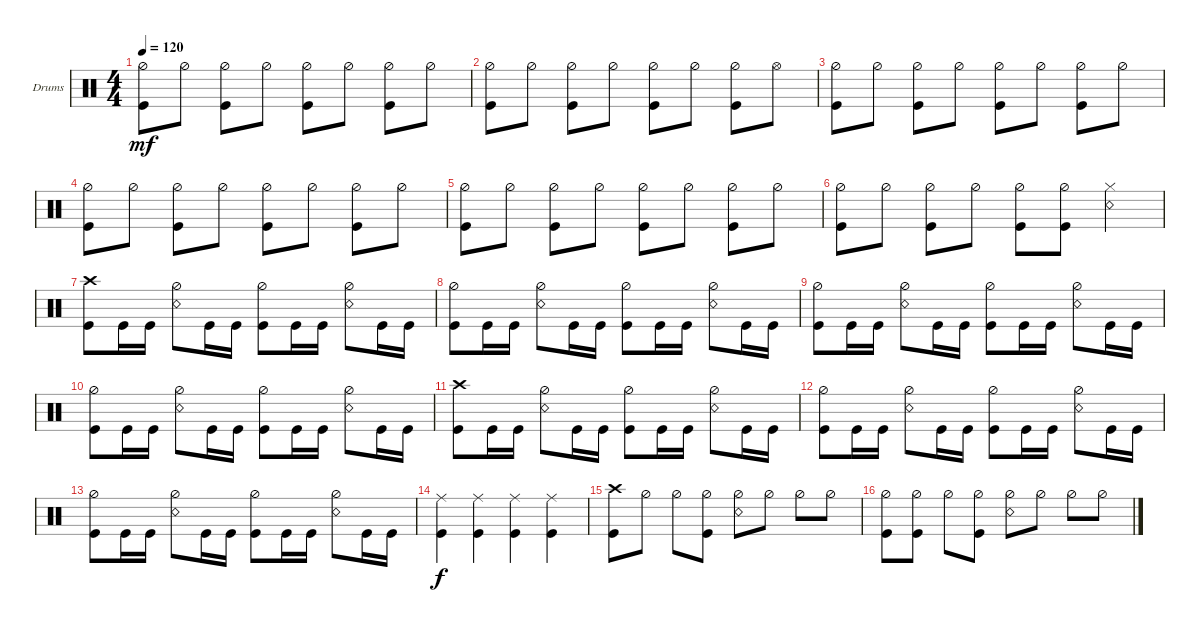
\defaultSystemsLayout 4
\bracketExtendMode groupsimilarinstruments
\firstSystemTrackNameOrientation horizontal
\otherSystemsTrackNameOrientation horizontal
\track ("Drumkit" "Drums") {instrument percussion}
\staff {score}
\articulation defaults
\ts (4 4)
\tempo 120
\clef neutral
\ks c
("Kick (hit)" "Hi-Hat (half)").8{dy mf} "Hi-Hat (half)".8 ("Kick (hit)" "Hi-Hat (half)").8 "Hi-Hat (half)".8 ("Kick (hit)" "Hi-Hat (half)").8 "Hi-Hat (half)".8 ("Kick (hit)" "Hi-Hat (half)").8 "Hi-Hat (half)".8 |
("Kick (hit)" "Hi-Hat (half)").8 "Hi-Hat (half)".8 ("Kick (hit)" "Hi-Hat (half)").8 "Hi-Hat (half)".8 ("Kick (hit)" "Hi-Hat (half)").8 "Hi-Hat (half)".8 ("Kick (hit)" "Hi-Hat (half)").8 "Hi-Hat (open)".8 |
("Kick (hit)" "Hi-Hat (half)").8 "Hi-Hat (half)".8 ("Kick (hit)" "Hi-Hat (half)").8 "Hi-Hat (half)".8 ("Kick (hit)" "Hi-Hat (half)").8 "Hi-Hat (half)".8 ("Kick (hit)" "Hi-Hat (half)").8 "Hi-Hat (half)".8 |
("Kick (hit)" "Hi-Hat (half)").8 "Hi-Hat (half)".8 ("Kick (hit)" "Hi-Hat (half)").8 "Hi-Hat (half)".8 ("Kick (hit)" "Hi-Hat (half)").8 "Hi-Hat (half)".8 ("Kick (hit)" "Hi-Hat (half)").8 "Hi-Hat (half)".8 |
("Kick (hit)" "Hi-Hat (half)").8 "Hi-Hat (half)".8 ("Kick (hit)" "Hi-Hat (half)").8 "Hi-Hat (half)".8 ("Kick (hit)" "Hi-Hat (half)").8 "Hi-Hat (half)".8 ("Kick (hit)" "Hi-Hat (half)").8 "Hi-Hat (half)".8 |
("Kick (hit)" "Hi-Hat (half)").8 "Hi-Hat (half)".8 ("Kick (hit)" "Hi-Hat (half)").8 "Hi-Hat (half)".8 ("Kick (hit)" "Hi-Hat (half)").8 ("Kick (hit)" "Hi-Hat (half)").8 ("Snare (rim shot)" "Hi-Hat (closed)").4 |
("Kick (hit)" "Crash high (hit)").8 "Kick (hit)".16 "Kick (hit)".16 ("Snare (rim shot)" "Hi-Hat (half)").8 "Kick (hit)".16 "Kick (hit)".16 ("Kick (hit)" "Hi-Hat (half)").8 "Kick (hit)".16 "Kick (hit)".16 ("Snare (rim shot)" "Hi-Hat (half)").8 "Kick (hit)".16 "Kick (hit)".16 |
("Kick (hit)" "Hi-Hat (half)").8 "Kick (hit)".16 "Kick (hit)".16 ("Snare (rim shot)" "Hi-Hat (half)").8 "Kick (hit)".16 "Kick (hit)".16 ("Kick (hit)" "Hi-Hat (half)").8 "Kick (hit)".16 "Kick (hit)".16 ("Snare (rim shot)" "Hi-Hat (half)").8 "Kick (hit)".16 "Kick (hit)".16 |
("Kick (hit)" "Hi-Hat (half)").8 "Kick (hit)".16 "Kick (hit)".16 ("Snare (rim shot)" "Hi-Hat (half)").8 "Kick (hit)".16 "Kick (hit)".16 ("Kick (hit)" "Hi-Hat (half)").8 "Kick (hit)".16 "Kick (hit)".16 ("Snare (rim shot)" "Hi-Hat (half)").8 "Kick (hit)".16 "Kick (hit)".16 |
("Kick (hit)" "Hi-Hat (half)").8 "Kick (hit)".16 "Kick (hit)".16 ("Snare (rim shot)" "Hi-Hat (half)").8 "Kick (hit)".16 "Kick (hit)".16 ("Kick (hit)" "Hi-Hat (half)").8 "Kick (hit)".16 "Kick (hit)".16 ("Snare (rim shot)" "Hi-Hat (half)").8 "Kick (hit)".16 "Kick (hit)".16 |
("Kick (hit)" "Crash high (hit)").8 "Kick (hit)".16 "Kick (hit)".16 ("Snare (rim shot)" "Hi-Hat (half)").8 "Kick (hit)".16 "Kick (hit)".16 ("Kick (hit)" "Hi-Hat (half)").8 "Kick (hit)".16 "Kick (hit)".16 ("Snare (rim shot)" "Hi-Hat (half)").8 "Kick (hit)".16 "Kick (hit)".16 |
("Kick (hit)" "Hi-Hat (half)").8 "Kick (hit)".16 "Kick (hit)".16 ("Snare (rim shot)" "Hi-Hat (half)").8 "Kick (hit)".16 "Kick (hit)".16 ("Kick (hit)" "Hi-Hat (half)").8 "Kick (hit)".16 "Kick (hit)".16 ("Snare (rim shot)" "Hi-Hat (half)").8 "Kick (hit)".16 "Kick (hit)".16 |
("Kick (hit)" "Hi-Hat (half)").8 "Kick (hit)".16 "Kick (hit)".16 ("Snare (rim shot)" "Hi-Hat (half)").8 "Kick (hit)".16 "Kick (hit)".16 ("Kick (hit)" "Hi-Hat (half)").8 "Kick (hit)".16 "Kick (hit)".16 ("Snare (rim shot)" "Hi-Hat (half)").8 "Kick (hit)".16 "Kick (hit)".16 |
("Kick (hit)" "Ride (middle)").4{dy f} ("Kick (hit)" "Ride (middle)").4 ("Kick (hit)" "Ride (middle)").4 ("Kick (hit)" "Ride (middle)").4 |
("Kick (hit)" "Crash high (hit)").8 "Hi-Hat (half)".8 "Hi-Hat (half)".8 ("Kick (hit)" "Hi-Hat (half)").8 ("Snare (rim shot)" "Hi-Hat (half)").8 "Hi-Hat (half)".8 "Hi-Hat (half)".8 "Hi-Hat (half)".8 |
("Kick (hit)" "Hi-Hat (half)").8 ("Hi-Hat (half)" "Kick (hit)").8 "Hi-Hat (half)".8 ("Kick (hit)" "Hi-Hat (half)").8 ("Snare (rim shot)" "Hi-Hat (half)").8 "Hi-Hat (half)".8 "Hi-Hat (half)".8 "Hi-Hat (half)".8
